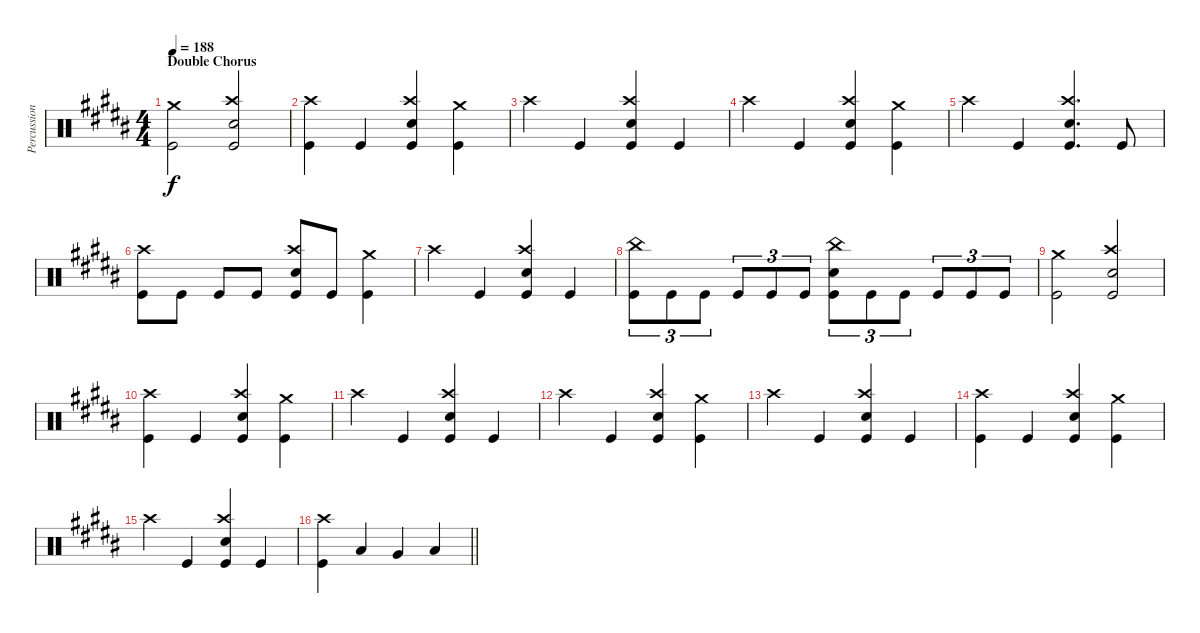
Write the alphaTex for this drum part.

\track ("Percussion" "Percussion") {instrument percussion}
\staff {score}
\articulation defaults
\ts (4 4)
\section ("" "Double Chorus")
\tempo 188
\clef neutral
\ks b
("Crash medium (hit)" "Kick (hit)").2{dy f} ("Crash high (hit)" "Electric Snare (hit)" "Kick (hit)").2 |
("Crash high (hit)" "Kick (hit)").4 "Kick (hit)".4 ("Crash high (hit)" "Electric Snare (hit)" "Kick (hit)").4 ("Crash medium (hit)" "Kick (hit)").4 |
"Crash high (hit)".4 "Kick (hit)".4 ("Crash high (hit)" "Electric Snare (hit)" "Kick (hit)").4 "Kick (hit)".4 |
"Crash high (hit)".4 "Kick (hit)".4 ("Crash high (hit)" "Electric Snare (hit)" "Kick (hit)").4 ("Crash medium (hit)" "Kick (hit)").4 |
"Crash high (hit)".4 "Kick (hit)".4 ("Crash high (hit)" "Electric Snare (hit)" "Kick (hit)").4{d} "Kick (hit)".8 |
("Crash high (hit)" "Kick (hit)").8 "Kick (hit)".8 "Kick (hit)".8 "Kick (hit)".8 ("Crash high (hit)" "Electric Snare (hit)" "Kick (hit)").8 "Kick (hit)".8 ("Crash medium (hit)" "Kick (hit)").4 |
"Crash high (hit)".4 "Kick (hit)".4 ("Crash high (hit)" "Electric Snare (hit)" "Kick (hit)").4 "Kick (hit)".4 |
("China (hit)" "Kick (hit)").8{tu (3 2)} "Kick (hit)".8{tu (3 2)} "Kick (hit)".8{tu (3 2)} "Kick (hit)".8{tu (3 2)} "Kick (hit)".8{tu (3 2)} "Kick (hit)".8{tu (3 2)} ("China (hit)" "Electric Snare (hit)" "Kick (hit)").8{tu (3 2)} "Kick (hit)".8{tu (3 2)} "Kick (hit)".8{tu (3 2)} "Kick (hit)".8{tu (3 2)} "Kick (hit)".8{tu (3 2)} "Kick (hit)".8{tu (3 2)} |
("Crash medium (hit)" "Kick (hit)").2 ("Crash high (hit)" "Electric Snare (hit)" "Kick (hit)").2 |
("Crash high (hit)" "Kick (hit)").4 "Kick (hit)".4 ("Crash high (hit)" "Electric Snare (hit)" "Kick (hit)").4 ("Crash medium (hit)" "Kick (hit)").4 |
"Crash high (hit)".4 "Kick (hit)".4 ("Crash high (hit)" "Electric Snare (hit)" "Kick (hit)").4 "Kick (hit)".4 |
"Crash high (hit)".4 "Kick (hit)".4 ("Crash high (hit)" "Electric Snare (hit)" "Kick (hit)").4 ("Crash medium (hit)" "Kick (hit)").4 |
"Crash high (hit)".4 "Kick (hit)".4 ("Crash high (hit)" "Electric Snare (hit)" "Kick (hit)").4 "Kick (hit)".4 |
("Crash high (hit)" "Kick (hit)").4 "Kick (hit)".4 ("Crash high (hit)" "Electric Snare (hit)" "Kick (hit)").4 ("Crash medium (hit)" "Kick (hit)").4 |
"Crash high (hit)".4 "Kick (hit)".4 ("Crash high (hit)" "Electric Snare (hit)" "Kick (hit)").4 "Kick (hit)".4 |
\barLineRight lightlight
("Crash high (hit)" "Kick (hit)").4 "Low Tom (hit)".4 "Very Low Tom (hit)".4 "Low Floor Tom (hit)".4
